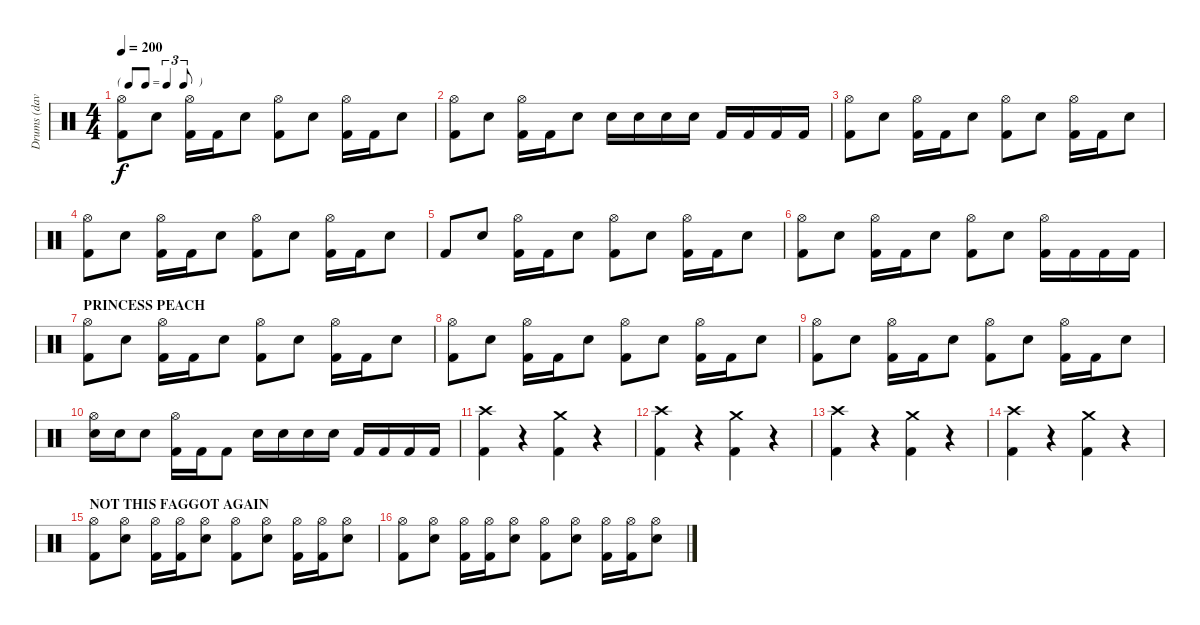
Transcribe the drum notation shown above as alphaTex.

\track ("Drums (dave)" "Drums (dav") {instrument percussion}
\staff {score}
\articulation defaults
\ts (4 4)
\tf triplet8th
\tempo 200
\clef neutral
\ks c
("Hi-Hat (open)" "Kick (hit) 2").8{dy f} "Snare (hit) 2".8 ("Hi-Hat (open)" "Kick (hit) 2").16 "Kick (hit) 2".16 "Snare (hit) 2".8 ("Hi-Hat (open)" "Kick (hit) 2").8 "Snare (hit) 2".8 ("Hi-Hat (open)" "Kick (hit) 2").16 "Kick (hit) 2".16 "Snare (hit) 2".8 |
("Hi-Hat (open)" "Kick (hit) 2").8 "Snare (hit) 2".8 ("Hi-Hat (open)" "Kick (hit) 2").16 "Kick (hit) 2".16 "Snare (hit) 2".8 "Snare (hit) 2".16 "Snare (hit) 2".16 "Snare (hit) 2".16 "Snare (hit) 2".16 "Kick (hit) 2".16 "Kick (hit) 2".16 "Kick (hit) 2".16 "Kick (hit) 2".16 |
("Hi-Hat (open)" "Kick (hit) 2").8 "Snare (hit) 2".8 ("Hi-Hat (open)" "Kick (hit) 2").16 "Kick (hit) 2".16 "Snare (hit) 2".8 ("Hi-Hat (open)" "Kick (hit) 2").8 "Snare (hit) 2".8 ("Hi-Hat (open)" "Kick (hit) 2").16 "Kick (hit) 2".16 "Snare (hit) 2".8 |
("Hi-Hat (open)" "Kick (hit) 2").8 "Snare (hit) 2".8 ("Hi-Hat (open)" "Kick (hit) 2").16 "Kick (hit) 2".16 "Snare (hit) 2".8 ("Hi-Hat (open)" "Kick (hit) 2").8 "Snare (hit) 2".8 ("Hi-Hat (open)" "Kick (hit) 2").16 "Kick (hit) 2".16 "Snare (hit) 2".8 |
"Kick (hit) 2".8 "Snare (hit) 2".8 ("Hi-Hat (open)" "Kick (hit) 2").16 "Kick (hit) 2".16 "Snare (hit) 2".8 ("Hi-Hat (open)" "Kick (hit) 2").8 "Snare (hit) 2".8 ("Hi-Hat (open)" "Kick (hit) 2").16 "Kick (hit) 2".16 "Snare (hit) 2".8 |
("Hi-Hat (open)" "Kick (hit) 2").8 "Snare (hit) 2".8 ("Hi-Hat (open)" "Kick (hit) 2").16 "Kick (hit) 2".16 "Snare (hit) 2".8 ("Hi-Hat (open)" "Kick (hit) 2").8 "Snare (hit) 2".8 ("Hi-Hat (open)" "Kick (hit) 2").16 "Kick (hit) 2".16 "Kick (hit) 2".16 "Kick (hit) 2".16 |
\section ("" "PRINCESS PEACH")
("Hi-Hat (open)" "Kick (hit) 2").8 "Snare (hit) 2".8 ("Hi-Hat (open)" "Kick (hit) 2").16 "Kick (hit) 2".16 "Snare (hit) 2".8 ("Hi-Hat (open)" "Kick (hit) 2").8 "Snare (hit) 2".8 ("Hi-Hat (open)" "Kick (hit) 2").16 "Kick (hit) 2".16 "Snare (hit) 2".8 |
("Hi-Hat (open)" "Kick (hit) 2").8 "Snare (hit) 2".8 ("Hi-Hat (open)" "Kick (hit) 2").16 "Kick (hit) 2".16 "Snare (hit) 2".8 ("Hi-Hat (open)" "Kick (hit) 2").8 "Snare (hit) 2".8 ("Hi-Hat (open)" "Kick (hit) 2").16 "Kick (hit) 2".16 "Snare (hit) 2".8 |
("Hi-Hat (open)" "Kick (hit) 2").8 "Snare (hit) 2".8 ("Hi-Hat (open)" "Kick (hit) 2").16 "Kick (hit) 2".16 "Snare (hit) 2".8 ("Hi-Hat (open)" "Kick (hit) 2").8 "Snare (hit) 2".8 ("Hi-Hat (open)" "Kick (hit) 2").16 "Kick (hit) 2".16 "Snare (hit) 2".8 |
("Hi-Hat (open)" "Snare (hit) 2").16 "Snare (hit) 2".16 "Snare (hit) 2".8 ("Hi-Hat (open)" "Kick (hit) 2").16 "Kick (hit) 2".16 "Kick (hit) 2".8 "Snare (hit) 2".16 "Snare (hit) 2".16 "Snare (hit) 2".16 "Snare (hit) 2".16 "Kick (hit) 2".16 "Kick (hit) 2".16 "Kick (hit) 2".16 "Kick (hit) 2".16 |
("Crash high (hit)" "Kick (hit) 2").4 r.4 ("Crash medium (hit)" "Kick (hit) 2").4 r.4 |
("Crash high (hit)" "Kick (hit) 2").4 r.4 ("Crash medium (hit)" "Kick (hit) 2").4 r.4 |
("Crash high (hit)" "Kick (hit) 2").4 r.4 ("Crash medium (hit)" "Kick (hit) 2").4 r.4 |
("Crash high (hit)" "Kick (hit) 2").4 r.4 ("Crash medium (hit)" "Kick (hit) 2").4 r.4 |
\section ("" "NOT THIS FAGGOT AGAIN")
("Hi-Hat (open)" "Kick (hit) 2").8 ("Hi-Hat (open)" "Snare (hit) 2").8 ("Hi-Hat (open)" "Kick (hit) 2").16 ("Hi-Hat (open)" "Kick (hit) 2").16 ("Hi-Hat (open)" "Snare (hit) 2").8 ("Hi-Hat (open)" "Kick (hit) 2").8 ("Hi-Hat (open)" "Snare (hit) 2").8 ("Hi-Hat (open)" "Kick (hit) 2").16 ("Hi-Hat (open)" "Kick (hit) 2").16 ("Hi-Hat (open)" "Snare (hit) 2").8 |
("Hi-Hat (open)" "Kick (hit) 2").8 ("Hi-Hat (open)" "Snare (hit) 2").8 ("Hi-Hat (open)" "Kick (hit) 2").16 ("Hi-Hat (open)" "Kick (hit) 2").16 ("Hi-Hat (open)" "Snare (hit) 2").8 ("Hi-Hat (open)" "Kick (hit) 2").8 ("Hi-Hat (open)" "Snare (hit) 2").8 ("Hi-Hat (open)" "Kick (hit) 2").16 ("Hi-Hat (open)" "Kick (hit) 2").16 ("Hi-Hat (open)" "Snare (hit) 2").8
